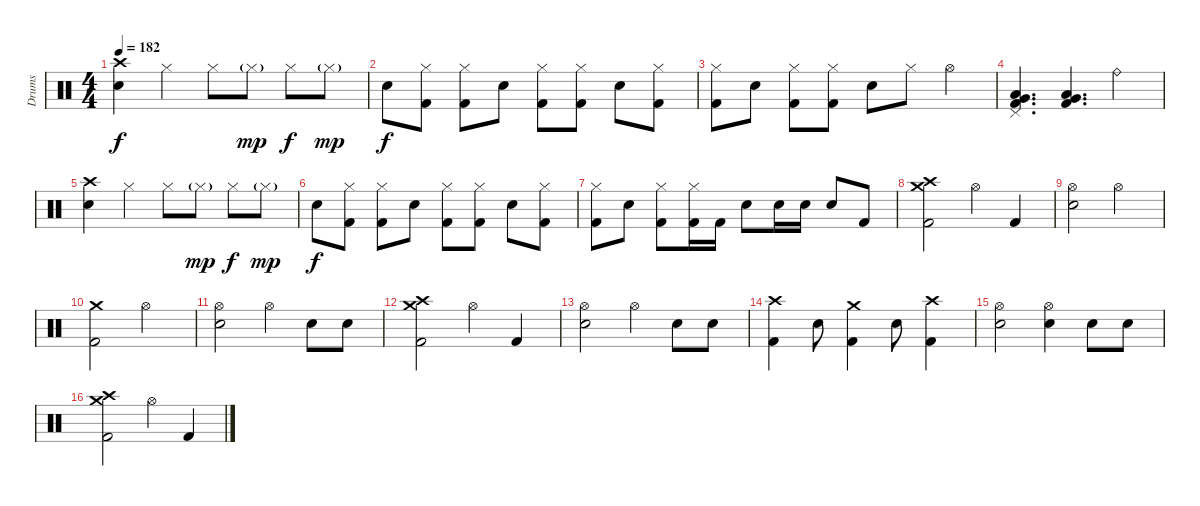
\track ("Drums" "Drums") {instrument percussion}
\staff {score}
\articulation defaults
\ts (4 4)
\tempo 182
\clef neutral
\ks c
("Crash high (hit)" "Electric Snare (hit)").4{dy f} "Hi-Hat (closed)".4 "Hi-Hat (closed)".8 "Hi-Hat (closed)"{g}.8{dy mp} "Hi-Hat (closed)".8{dy f} "Hi-Hat (closed)"{g}.8{dy mp} |
"Electric Snare (hit)".8{dy f} ("Hi-Hat (closed)" "Kick (hit) 2").8 ("Hi-Hat (closed)" "Kick (hit) 2").8 "Electric Snare (hit)".8 ("Hi-Hat (closed)" "Kick (hit) 2").8 ("Hi-Hat (closed)" "Kick (hit) 2").8 "Electric Snare (hit)".8 ("Hi-Hat (closed)" "Kick (hit) 2").8 |
("Hi-Hat (closed)" "Kick (hit) 2").8 "Electric Snare (hit)".8 ("Hi-Hat (closed)" "Kick (hit) 2").8 ("Hi-Hat (closed)" "Kick (hit) 2").8 "Electric Snare (hit)".8 "Hi-Hat (closed)".8 "Hi-Hat (open)".4 |
("Pedal Hi-Hat (hit)" "Very Low Tom (hit)" "Low Floor Tom (hit)" "Kick (hit) 2").4{d} ("Very Low Tom (hit)" "Low Floor Tom (hit)" "Kick (hit) 2").4{d} "Ride (bell)".4 |
("Crash high (hit)" "Electric Snare (hit)").4 "Hi-Hat (closed)".4 "Hi-Hat (closed)".8 "Hi-Hat (closed)"{g}.8{dy mp} "Hi-Hat (closed)".8{dy f} "Hi-Hat (closed)"{g}.8{dy mp} |
"Electric Snare (hit)".8{dy f} ("Hi-Hat (closed)" "Kick (hit) 2").8 ("Hi-Hat (closed)" "Kick (hit) 2").8 "Electric Snare (hit)".8 ("Hi-Hat (closed)" "Kick (hit) 2").8 ("Hi-Hat (closed)" "Kick (hit) 2").8 "Electric Snare (hit)".8 ("Hi-Hat (closed)" "Kick (hit) 2").8 |
("Hi-Hat (closed)" "Kick (hit) 2").8 "Electric Snare (hit)".8 ("Hi-Hat (closed)" "Kick (hit) 2").8 ("Hi-Hat (closed)" "Kick (hit) 2").16 "Kick (hit) 2".16 "Electric Snare (hit)".8 "Electric Snare (hit)".16 "Electric Snare (hit)".16 "Electric Snare (hit)".8 "Kick (hit) 2".8 |
("Crash medium (hit)" "Crash high (hit)" "Kick (hit) 2").2 "Hi-Hat (open)".4 "Kick (hit) 2".4 |
("Hi-Hat (open)" "Electric Snare (hit)").2 "Hi-Hat (open)".2 |
("Crash medium (hit)" "Kick (hit) 2").2 "Hi-Hat (open)".2 |
("Hi-Hat (open)" "Electric Snare (hit)").2 "Hi-Hat (open)".4 "Electric Snare (hit)".8 "Electric Snare (hit)".8 |
("Crash medium (hit)" "Crash high (hit)" "Kick (hit) 2").2 "Hi-Hat (open)".4 "Kick (hit) 2".4 |
("Hi-Hat (open)" "Electric Snare (hit)").2 "Hi-Hat (open)".4 "Electric Snare (hit)".8 "Electric Snare (hit)".8 |
("Crash high (hit)" "Kick (hit) 2").4 "Electric Snare (hit)".8 ("Crash medium (hit)" "Kick (hit) 2").4 "Electric Snare (hit)".8 ("Crash high (hit)" "Kick (hit) 2").4 |
("Hi-Hat (open)" "Electric Snare (hit)").2 ("Hi-Hat (open)" "Electric Snare (hit)").4 "Electric Snare (hit)".8 "Electric Snare (hit)".8 |
("Crash medium (hit)" "Crash high (hit)" "Kick (hit) 2").2 "Hi-Hat (open)".4 "Kick (hit) 2".4
